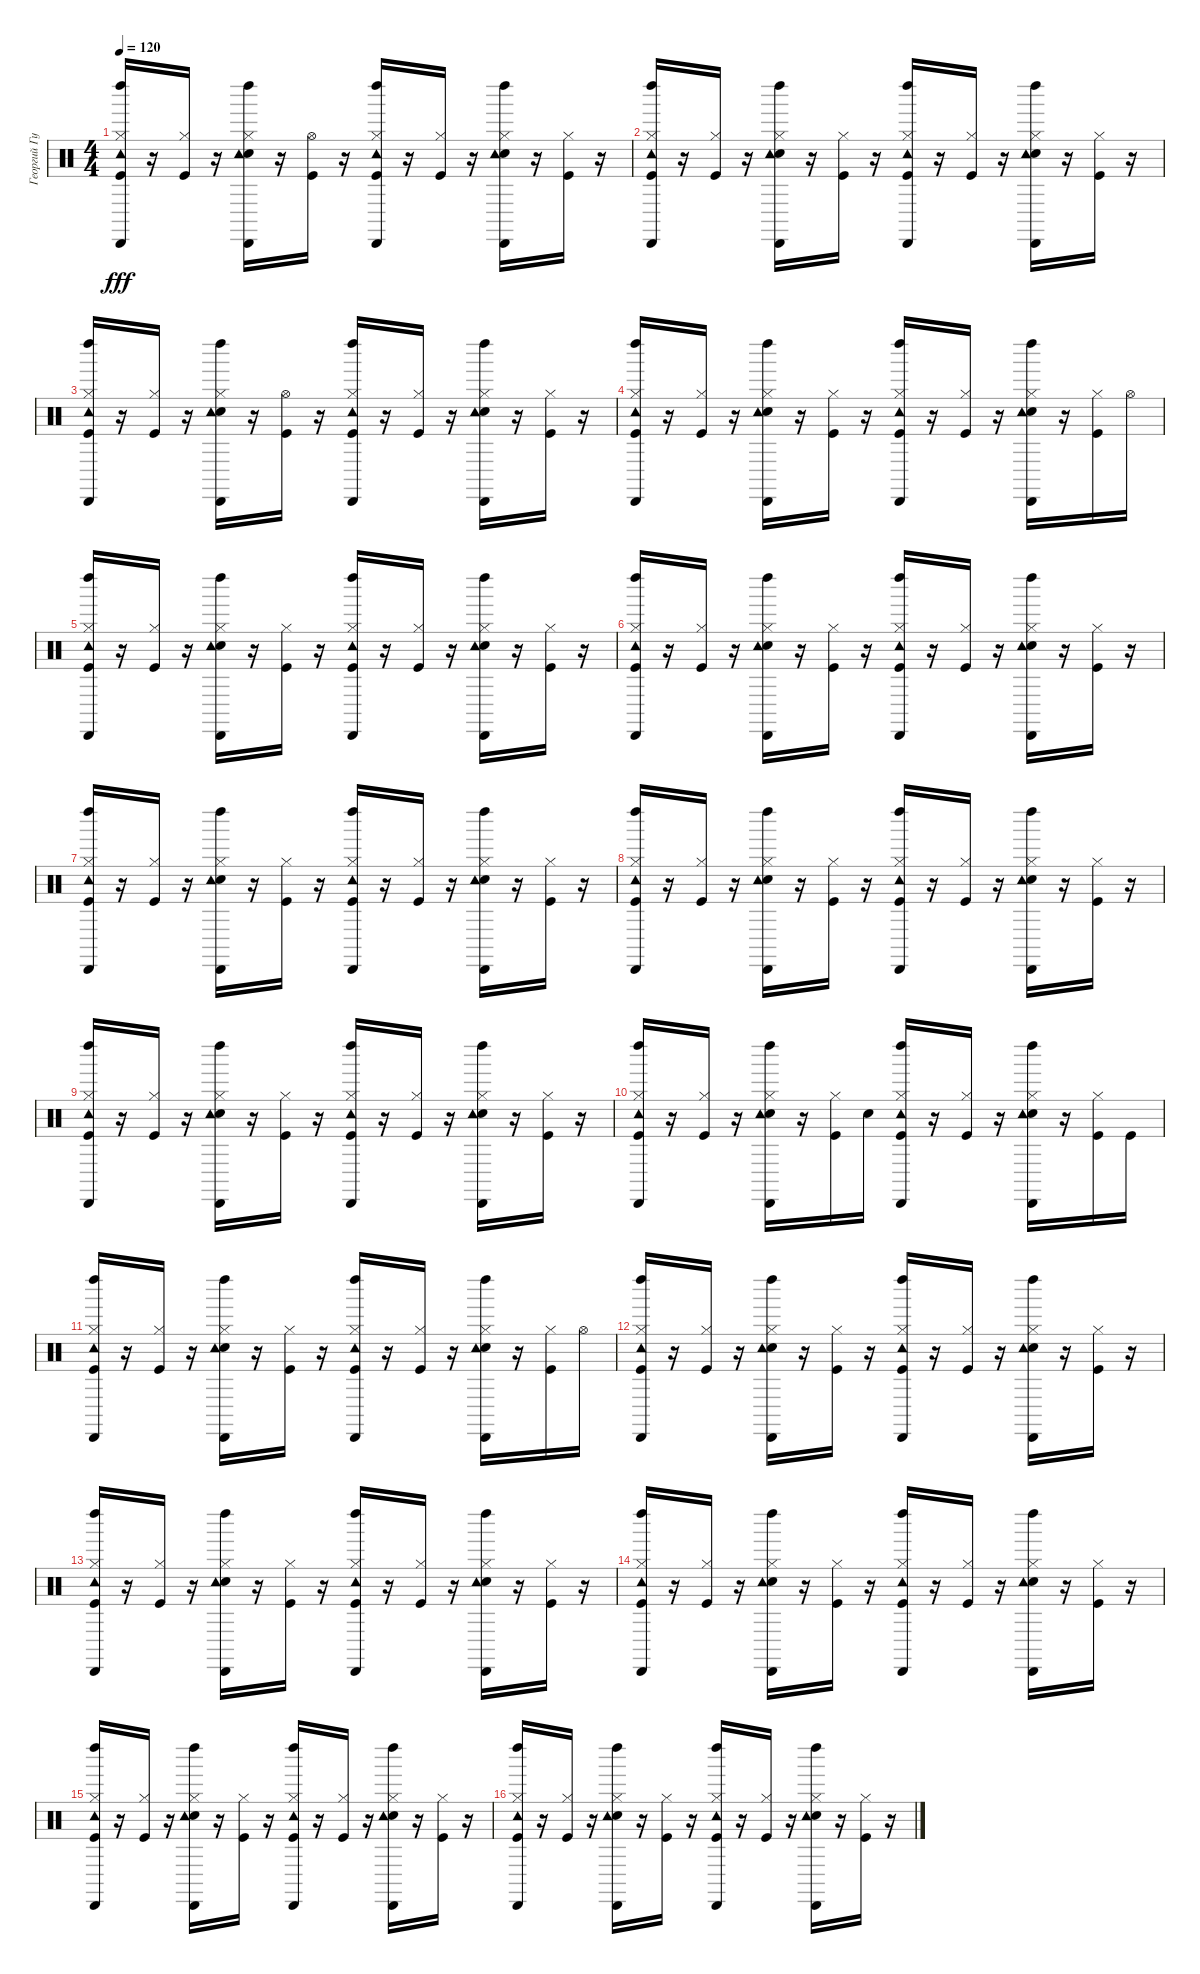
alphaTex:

\track ("Георгий Гурьянов (ударные)" "Георгий Гу") {instrument percussion}
\staff {score}
\articulation defaults
\ts (4 4)
\tempo 120
\clef neutral
\ks c
("Kick (hit)" "Hi-Hat (closed)" "Tambourine (hit)" "Left Maraca (hit)" "Cabasa (hit)").16{dy fff} r.16 ("Kick (hit)" "Hi-Hat (closed)").16 r.16 ("Snare (hit) 2" "Hi-Hat (closed)" "Tambourine (hit)" "Left Maraca (hit)" "Cabasa (hit)").16 r.16 ("Kick (hit)" "Hi-Hat (open)").16 r.16 ("Kick (hit)" "Hi-Hat (closed)" "Tambourine (hit)" "Left Maraca (hit)" "Cabasa (hit)").16 r.16 ("Kick (hit)" "Hi-Hat (closed)").16 r.16 ("Snare (hit) 2" "Hi-Hat (closed)" "Tambourine (hit)" "Left Maraca (hit)" "Cabasa (hit)").16 r.16 ("Kick (hit)" "Hi-Hat (closed)").16 r.16 |
("Kick (hit)" "Hi-Hat (closed)" "Tambourine (hit)" "Left Maraca (hit)" "Cabasa (hit)").16 r.16 ("Kick (hit)" "Hi-Hat (closed)").16 r.16 ("Snare (hit) 2" "Hi-Hat (closed)" "Tambourine (hit)" "Left Maraca (hit)" "Cabasa (hit)").16 r.16 ("Kick (hit)" "Hi-Hat (closed)").16 r.16 ("Kick (hit)" "Hi-Hat (closed)" "Tambourine (hit)" "Left Maraca (hit)" "Cabasa (hit)").16 r.16 ("Kick (hit)" "Hi-Hat (closed)").16 r.16 ("Snare (hit) 2" "Hi-Hat (closed)" "Tambourine (hit)" "Left Maraca (hit)" "Cabasa (hit)").16 r.16 ("Kick (hit)" "Hi-Hat (closed)").16 r.16 |
("Kick (hit)" "Hi-Hat (closed)" "Tambourine (hit)" "Left Maraca (hit)" "Cabasa (hit)").16 r.16 ("Kick (hit)" "Hi-Hat (closed)").16 r.16 ("Snare (hit) 2" "Hi-Hat (closed)" "Tambourine (hit)" "Left Maraca (hit)" "Cabasa (hit)").16 r.16 ("Kick (hit)" "Hi-Hat (open)").16 r.16 ("Kick (hit)" "Hi-Hat (closed)" "Tambourine (hit)" "Left Maraca (hit)" "Cabasa (hit)").16 r.16 ("Kick (hit)" "Hi-Hat (closed)").16 r.16 ("Snare (hit) 2" "Hi-Hat (closed)" "Tambourine (hit)" "Left Maraca (hit)" "Cabasa (hit)").16 r.16 ("Kick (hit)" "Hi-Hat (closed)").16 r.16 |
("Kick (hit)" "Hi-Hat (closed)" "Tambourine (hit)" "Left Maraca (hit)" "Cabasa (hit)").16 r.16 ("Kick (hit)" "Hi-Hat (closed)").16 r.16 ("Snare (hit) 2" "Hi-Hat (closed)" "Tambourine (hit)" "Left Maraca (hit)" "Cabasa (hit)").16 r.16 ("Kick (hit)" "Hi-Hat (closed)").16 r.16 ("Kick (hit)" "Hi-Hat (closed)" "Tambourine (hit)" "Left Maraca (hit)" "Cabasa (hit)").16 r.16 ("Kick (hit)" "Hi-Hat (closed)").16 r.16 ("Snare (hit) 2" "Hi-Hat (closed)" "Tambourine (hit)" "Left Maraca (hit)" "Cabasa (hit)").16 r.16 ("Kick (hit)" "Hi-Hat (closed)").16 "Hi-Hat (open)".16 |
("Kick (hit)" "Hi-Hat (closed)" "Tambourine (hit)" "Left Maraca (hit)" "Cabasa (hit)").16 r.16 ("Kick (hit)" "Hi-Hat (closed)").16 r.16 ("Snare (hit) 2" "Hi-Hat (closed)" "Tambourine (hit)" "Left Maraca (hit)" "Cabasa (hit)").16 r.16 ("Kick (hit)" "Hi-Hat (closed)").16 r.16 ("Kick (hit)" "Hi-Hat (closed)" "Tambourine (hit)" "Left Maraca (hit)" "Cabasa (hit)").16 r.16 ("Kick (hit)" "Hi-Hat (closed)").16 r.16 ("Snare (hit) 2" "Hi-Hat (closed)" "Tambourine (hit)" "Left Maraca (hit)" "Cabasa (hit)").16 r.16 ("Kick (hit)" "Hi-Hat (closed)").16 r.16 |
("Kick (hit)" "Hi-Hat (closed)" "Tambourine (hit)" "Left Maraca (hit)" "Cabasa (hit)").16 r.16 ("Kick (hit)" "Hi-Hat (closed)").16 r.16 ("Snare (hit) 2" "Hi-Hat (closed)" "Tambourine (hit)" "Left Maraca (hit)" "Cabasa (hit)").16 r.16 ("Kick (hit)" "Hi-Hat (closed)").16 r.16 ("Kick (hit)" "Hi-Hat (closed)" "Tambourine (hit)" "Left Maraca (hit)" "Cabasa (hit)").16 r.16 ("Kick (hit)" "Hi-Hat (closed)").16 r.16 ("Snare (hit) 2" "Hi-Hat (closed)" "Tambourine (hit)" "Left Maraca (hit)" "Cabasa (hit)").16 r.16 ("Kick (hit)" "Hi-Hat (closed)").16 r.16 |
("Kick (hit)" "Hi-Hat (closed)" "Tambourine (hit)" "Left Maraca (hit)" "Cabasa (hit)").16 r.16 ("Kick (hit)" "Hi-Hat (closed)").16 r.16 ("Snare (hit) 2" "Hi-Hat (closed)" "Tambourine (hit)" "Left Maraca (hit)" "Cabasa (hit)").16 r.16 ("Kick (hit)" "Hi-Hat (closed)").16 r.16 ("Kick (hit)" "Hi-Hat (closed)" "Tambourine (hit)" "Left Maraca (hit)" "Cabasa (hit)").16 r.16 ("Kick (hit)" "Hi-Hat (closed)").16 r.16 ("Snare (hit) 2" "Hi-Hat (closed)" "Tambourine (hit)" "Left Maraca (hit)" "Cabasa (hit)").16 r.16 ("Kick (hit)" "Hi-Hat (closed)").16 r.16 |
("Kick (hit)" "Hi-Hat (closed)" "Tambourine (hit)" "Left Maraca (hit)" "Cabasa (hit)").16 r.16 ("Kick (hit)" "Hi-Hat (closed)").16 r.16 ("Snare (hit) 2" "Hi-Hat (closed)" "Tambourine (hit)" "Left Maraca (hit)" "Cabasa (hit)").16 r.16 ("Kick (hit)" "Hi-Hat (closed)").16 r.16 ("Kick (hit)" "Hi-Hat (closed)" "Tambourine (hit)" "Left Maraca (hit)" "Cabasa (hit)").16 r.16 ("Kick (hit)" "Hi-Hat (closed)").16 r.16 ("Snare (hit) 2" "Hi-Hat (closed)" "Tambourine (hit)" "Left Maraca (hit)" "Cabasa (hit)").16 r.16 ("Kick (hit)" "Hi-Hat (closed)").16 r.16 |
("Kick (hit)" "Hi-Hat (closed)" "Tambourine (hit)" "Left Maraca (hit)" "Cabasa (hit)").16 r.16 ("Kick (hit)" "Hi-Hat (closed)").16 r.16 ("Snare (hit) 2" "Hi-Hat (closed)" "Tambourine (hit)" "Left Maraca (hit)" "Cabasa (hit)").16 r.16 ("Kick (hit)" "Hi-Hat (closed)").16 r.16 ("Kick (hit)" "Hi-Hat (closed)" "Tambourine (hit)" "Left Maraca (hit)" "Cabasa (hit)").16 r.16 ("Kick (hit)" "Hi-Hat (closed)").16 r.16 ("Snare (hit) 2" "Hi-Hat (closed)" "Tambourine (hit)" "Left Maraca (hit)" "Cabasa (hit)").16 r.16 ("Kick (hit)" "Hi-Hat (closed)").16 r.16 |
("Kick (hit)" "Hi-Hat (closed)" "Tambourine (hit)" "Left Maraca (hit)" "Cabasa (hit)").16 r.16 ("Kick (hit)" "Hi-Hat (closed)").16 r.16 ("Snare (hit) 2" "Hi-Hat (closed)" "Tambourine (hit)" "Left Maraca (hit)" "Cabasa (hit)").16 r.16 ("Kick (hit)" "Hi-Hat (closed)").16 "Snare (hit) 2".16 ("Kick (hit)" "Hi-Hat (closed)" "Tambourine (hit)" "Left Maraca (hit)" "Cabasa (hit)").16 r.16 ("Kick (hit)" "Hi-Hat (closed)").16 r.16 ("Snare (hit) 2" "Hi-Hat (closed)" "Tambourine (hit)" "Left Maraca (hit)" "Cabasa (hit)").16 r.16 ("Kick (hit)" "Hi-Hat (closed)").16 "Kick (hit)".16 |
("Kick (hit)" "Hi-Hat (closed)" "Tambourine (hit)" "Left Maraca (hit)" "Cabasa (hit)").16 r.16 ("Kick (hit)" "Hi-Hat (closed)").16 r.16 ("Snare (hit) 2" "Hi-Hat (closed)" "Tambourine (hit)" "Left Maraca (hit)" "Cabasa (hit)").16 r.16 ("Kick (hit)" "Hi-Hat (closed)").16 r.16 ("Kick (hit)" "Hi-Hat (closed)" "Tambourine (hit)" "Left Maraca (hit)" "Cabasa (hit)").16 r.16 ("Kick (hit)" "Hi-Hat (closed)").16 r.16 ("Snare (hit) 2" "Hi-Hat (closed)" "Tambourine (hit)" "Left Maraca (hit)" "Cabasa (hit)").16 r.16 ("Kick (hit)" "Hi-Hat (closed)").16 "Hi-Hat (open)".16 |
("Kick (hit)" "Hi-Hat (closed)" "Tambourine (hit)" "Left Maraca (hit)" "Cabasa (hit)").16 r.16 ("Kick (hit)" "Hi-Hat (closed)").16 r.16 ("Snare (hit) 2" "Hi-Hat (closed)" "Tambourine (hit)" "Left Maraca (hit)" "Cabasa (hit)").16 r.16 ("Kick (hit)" "Hi-Hat (closed)").16 r.16 ("Kick (hit)" "Hi-Hat (closed)" "Tambourine (hit)" "Left Maraca (hit)" "Cabasa (hit)").16 r.16 ("Kick (hit)" "Hi-Hat (closed)").16 r.16 ("Snare (hit) 2" "Hi-Hat (closed)" "Tambourine (hit)" "Left Maraca (hit)" "Cabasa (hit)").16 r.16 ("Kick (hit)" "Hi-Hat (closed)").16 r.16 |
("Kick (hit)" "Hi-Hat (closed)" "Tambourine (hit)" "Left Maraca (hit)" "Cabasa (hit)").16 r.16 ("Kick (hit)" "Hi-Hat (closed)").16 r.16 ("Snare (hit) 2" "Hi-Hat (closed)" "Tambourine (hit)" "Left Maraca (hit)" "Cabasa (hit)").16 r.16 ("Kick (hit)" "Hi-Hat (closed)").16 r.16 ("Kick (hit)" "Hi-Hat (closed)" "Tambourine (hit)" "Left Maraca (hit)" "Cabasa (hit)").16 r.16 ("Kick (hit)" "Hi-Hat (closed)").16 r.16 ("Snare (hit) 2" "Hi-Hat (closed)" "Tambourine (hit)" "Left Maraca (hit)" "Cabasa (hit)").16 r.16 ("Kick (hit)" "Hi-Hat (closed)").16 r.16 |
("Kick (hit)" "Hi-Hat (closed)" "Tambourine (hit)" "Left Maraca (hit)" "Cabasa (hit)").16 r.16 ("Kick (hit)" "Hi-Hat (closed)").16 r.16 ("Snare (hit) 2" "Hi-Hat (closed)" "Tambourine (hit)" "Left Maraca (hit)" "Cabasa (hit)").16 r.16 ("Kick (hit)" "Hi-Hat (closed)").16 r.16 ("Kick (hit)" "Hi-Hat (closed)" "Tambourine (hit)" "Left Maraca (hit)" "Cabasa (hit)").16 r.16 ("Kick (hit)" "Hi-Hat (closed)").16 r.16 ("Snare (hit) 2" "Hi-Hat (closed)" "Tambourine (hit)" "Left Maraca (hit)" "Cabasa (hit)").16 r.16 ("Kick (hit)" "Hi-Hat (closed)").16 r.16 |
("Kick (hit)" "Hi-Hat (closed)" "Tambourine (hit)" "Left Maraca (hit)" "Cabasa (hit)").16 r.16 ("Kick (hit)" "Hi-Hat (closed)").16 r.16 ("Snare (hit) 2" "Hi-Hat (closed)" "Tambourine (hit)" "Left Maraca (hit)" "Cabasa (hit)").16 r.16 ("Kick (hit)" "Hi-Hat (closed)").16 r.16 ("Kick (hit)" "Hi-Hat (closed)" "Tambourine (hit)" "Left Maraca (hit)" "Cabasa (hit)").16 r.16 ("Kick (hit)" "Hi-Hat (closed)").16 r.16 ("Snare (hit) 2" "Hi-Hat (closed)" "Tambourine (hit)" "Left Maraca (hit)" "Cabasa (hit)").16 r.16 ("Kick (hit)" "Hi-Hat (closed)").16 r.16 |
("Kick (hit)" "Hi-Hat (closed)" "Tambourine (hit)" "Left Maraca (hit)" "Cabasa (hit)").16 r.16 ("Kick (hit)" "Hi-Hat (closed)").16 r.16 ("Snare (hit) 2" "Hi-Hat (closed)" "Tambourine (hit)" "Left Maraca (hit)" "Cabasa (hit)").16 r.16 ("Kick (hit)" "Hi-Hat (closed)").16 r.16 ("Kick (hit)" "Hi-Hat (closed)" "Tambourine (hit)" "Left Maraca (hit)" "Cabasa (hit)").16 r.16 ("Kick (hit)" "Hi-Hat (closed)").16 r.16 ("Snare (hit) 2" "Hi-Hat (closed)" "Tambourine (hit)" "Left Maraca (hit)" "Cabasa (hit)").16 r.16 ("Kick (hit)" "Hi-Hat (closed)").16 r.16
